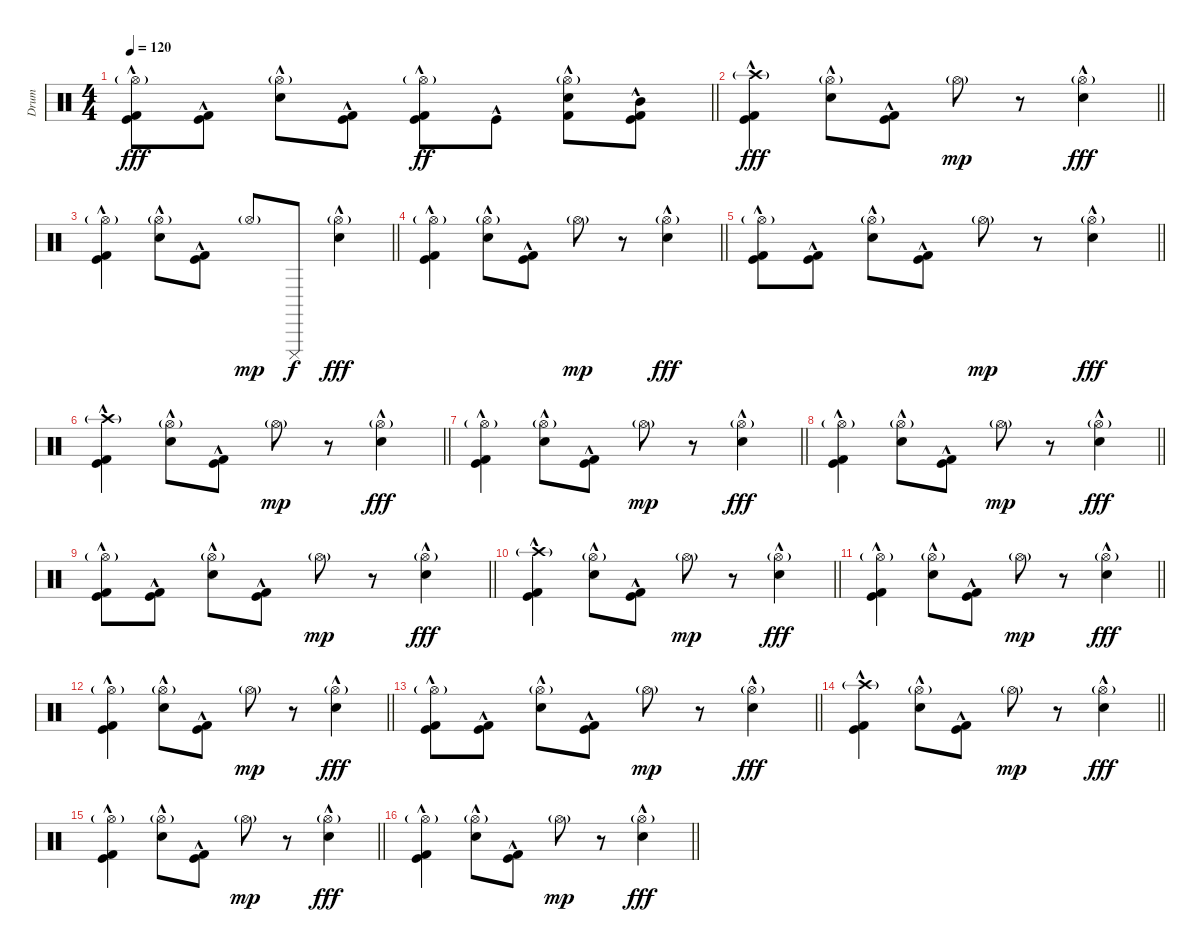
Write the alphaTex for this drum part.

\track ("Drum" "Drum") {instrument percussion}
\staff {score}
\articulation defaults
\ts (4 4)
\tempo 120
\clef neutral
\barLineRight lightlight
\ks c
("Hi-Hat (open)"{g} "Kick (hit) 2"{hac} "Kick (hit)"{hac}).8{dy fff} ("Kick (hit) 2"{hac} "Kick (hit)"{hac}).8 ("Hi-Hat (open)"{g} "Snare (hit) 2"{hac}).8 ("Kick (hit) 2"{hac} "Kick (hit)"{hac}).8 ("Hi-Hat (open)"{g} "Kick (hit) 2"{hac} "Kick (hit)"{hac}).8{dy ff} "Kick (hit)"{hac}.8 ("Hi-Hat (open)"{g} "Snare (hit) 2"{hac} "Kick (hit) 2"{hac}).8 ("Mid Tom (hit)"{hac} "Kick (hit) 2"{hac} "Kick (hit)"{hac}).8 |
\section ("" " ")
\barLineRight lightlight
("Crash high (hit)"{g} "Kick (hit) 2"{hac} "Kick (hit)"{hac}).4{dy fff} ("Hi-Hat (open)"{g} "Snare (hit) 2"{hac}).8 ("Kick (hit) 2"{hac} "Kick (hit)"{hac}).8 "Hi-Hat (open)"{g}.8{dy mp} r.8 ("Hi-Hat (open)"{g} "Snare (hit) 2"{hac}).4{dy fff} |
\barLineRight lightlight
("Hi-Hat (open)"{g} "Kick (hit) 2"{hac} "Kick (hit)"{hac}).4 ("Hi-Hat (open)"{g} "Snare (hit) 2"{hac}).8 ("Kick (hit) 2"{hac} "Kick (hit)"{hac}).8 "Hi-Hat (open)"{g}.8{dy mp} "Cuica (mute)".8{dy f} ("Hi-Hat (open)"{g} "Snare (hit) 2"{hac}).4{dy fff} |
\barLineRight lightlight
("Hi-Hat (open)"{g} "Kick (hit) 2"{hac} "Kick (hit)"{hac}).4 ("Hi-Hat (open)"{g} "Snare (hit) 2"{hac}).8 ("Kick (hit) 2"{hac} "Kick (hit)"{hac}).8 "Hi-Hat (open)"{g}.8{dy mp} r.8 ("Hi-Hat (open)"{g} "Snare (hit) 2"{hac}).4{dy fff} |
\barLineRight lightlight
("Hi-Hat (open)"{g} "Kick (hit) 2"{hac} "Kick (hit)"{hac}).8 ("Kick (hit) 2"{hac} "Kick (hit)"{hac}).8 ("Hi-Hat (open)"{g} "Snare (hit) 2"{hac}).8 ("Kick (hit) 2"{hac} "Kick (hit)"{hac}).8 "Hi-Hat (open)"{g}.8{dy mp} r.8 ("Hi-Hat (open)"{g} "Snare (hit) 2"{hac}).4{dy fff} |
\barLineRight lightlight
("Crash high (hit)"{g} "Kick (hit) 2"{hac} "Kick (hit)"{hac}).4 ("Hi-Hat (open)"{g} "Snare (hit) 2"{hac}).8 ("Kick (hit) 2"{hac} "Kick (hit)"{hac}).8 "Hi-Hat (open)"{g}.8{dy mp} r.8 ("Hi-Hat (open)"{g} "Snare (hit) 2"{hac}).4{dy fff} |
\barLineRight lightlight
("Hi-Hat (open)"{g} "Kick (hit) 2"{hac} "Kick (hit)"{hac}).4 ("Hi-Hat (open)"{g} "Snare (hit) 2"{hac}).8 ("Kick (hit) 2"{hac} "Kick (hit)"{hac}).8 "Hi-Hat (open)"{g}.8{dy mp} r.8 ("Hi-Hat (open)"{g} "Snare (hit) 2"{hac}).4{dy fff} |
\barLineRight lightlight
("Hi-Hat (open)"{g} "Kick (hit) 2"{hac} "Kick (hit)"{hac}).4 ("Hi-Hat (open)"{g} "Snare (hit) 2"{hac}).8 ("Kick (hit) 2"{hac} "Kick (hit)"{hac}).8 "Hi-Hat (open)"{g}.8{dy mp} r.8 ("Hi-Hat (open)"{g} "Snare (hit) 2"{hac}).4{dy fff} |
\barLineRight lightlight
("Hi-Hat (open)"{g} "Kick (hit) 2"{hac} "Kick (hit)"{hac}).8 ("Kick (hit) 2"{hac} "Kick (hit)"{hac}).8 ("Hi-Hat (open)"{g} "Snare (hit) 2"{hac}).8 ("Kick (hit) 2"{hac} "Kick (hit)"{hac}).8 "Hi-Hat (open)"{g}.8{dy mp} r.8 ("Hi-Hat (open)"{g} "Snare (hit) 2"{hac}).4{dy fff} |
\barLineRight lightlight
("Crash high (hit)"{g} "Kick (hit) 2"{hac} "Kick (hit)"{hac}).4 ("Hi-Hat (open)"{g} "Snare (hit) 2"{hac}).8 ("Kick (hit) 2"{hac} "Kick (hit)"{hac}).8 "Hi-Hat (open)"{g}.8{dy mp} r.8 ("Hi-Hat (open)"{g} "Snare (hit) 2"{hac}).4{dy fff} |
\barLineRight lightlight
("Hi-Hat (open)"{g} "Kick (hit) 2"{hac} "Kick (hit)"{hac}).4 ("Hi-Hat (open)"{g} "Snare (hit) 2"{hac}).8 ("Kick (hit) 2"{hac} "Kick (hit)"{hac}).8 "Hi-Hat (open)"{g}.8{dy mp} r.8 ("Hi-Hat (open)"{g} "Snare (hit) 2"{hac}).4{dy fff} |
\barLineRight lightlight
("Hi-Hat (open)"{g} "Kick (hit) 2"{hac} "Kick (hit)"{hac}).4 ("Hi-Hat (open)"{g} "Snare (hit) 2"{hac}).8 ("Kick (hit) 2"{hac} "Kick (hit)"{hac}).8 "Hi-Hat (open)"{g}.8{dy mp} r.8 ("Hi-Hat (open)"{g} "Snare (hit) 2"{hac}).4{dy fff} |
\barLineRight lightlight
("Hi-Hat (open)"{g} "Kick (hit) 2"{hac} "Kick (hit)"{hac}).8 ("Kick (hit) 2"{hac} "Kick (hit)"{hac}).8 ("Hi-Hat (open)"{g} "Snare (hit) 2"{hac}).8 ("Kick (hit) 2"{hac} "Kick (hit)"{hac}).8 "Hi-Hat (open)"{g}.8{dy mp} r.8 ("Hi-Hat (open)"{g} "Snare (hit) 2"{hac}).4{dy fff} |
\barLineRight lightlight
("Crash high (hit)"{g} "Kick (hit) 2"{hac} "Kick (hit)"{hac}).4 ("Hi-Hat (open)"{g} "Snare (hit) 2"{hac}).8 ("Kick (hit) 2"{hac} "Kick (hit)"{hac}).8 "Hi-Hat (open)"{g}.8{dy mp} r.8 ("Hi-Hat (open)"{g} "Snare (hit) 2"{hac}).4{dy fff} |
\barLineRight lightlight
("Hi-Hat (open)"{g} "Kick (hit) 2"{hac} "Kick (hit)"{hac}).4 ("Hi-Hat (open)"{g} "Snare (hit) 2"{hac}).8 ("Kick (hit) 2"{hac} "Kick (hit)"{hac}).8 "Hi-Hat (open)"{g}.8{dy mp} r.8 ("Hi-Hat (open)"{g} "Snare (hit) 2"{hac}).4{dy fff} |
\barLineRight lightlight
("Hi-Hat (open)"{g} "Kick (hit) 2"{hac} "Kick (hit)"{hac}).4 ("Hi-Hat (open)"{g} "Snare (hit) 2"{hac}).8 ("Kick (hit) 2"{hac} "Kick (hit)"{hac}).8 "Hi-Hat (open)"{g}.8{dy mp} r.8 ("Hi-Hat (open)"{g} "Snare (hit) 2"{hac}).4{dy fff}
